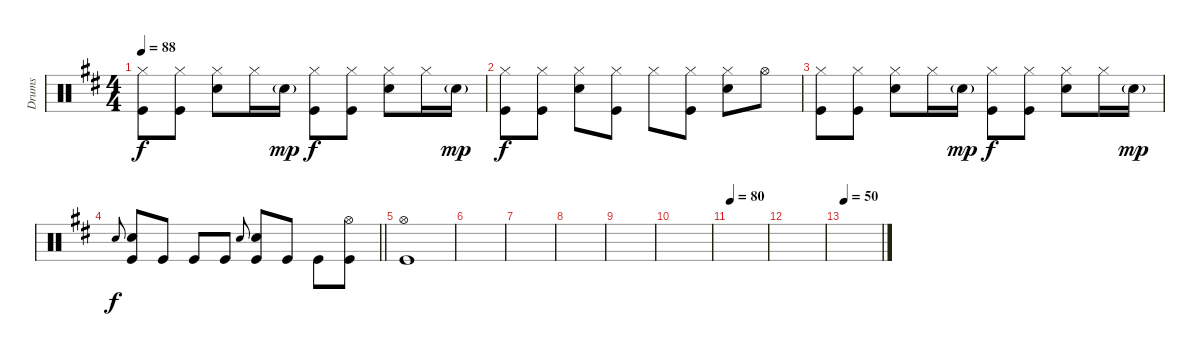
\track ("Drums" "Drums") {instrument percussion}
\staff {score}
\articulation defaults
\ts (4 4)
\tempo 88
\clef neutral
\ks bminor
("Kick (hit)" "Hi-Hat (closed)").8{dy f} ("Kick (hit)" "Hi-Hat (closed)").8 ("Snare (hit) 2" "Hi-Hat (closed)").8 "Hi-Hat (closed)".16 "Snare (hit) 2"{g}.16{dy mp} ("Kick (hit)" "Hi-Hat (closed)").8{dy f} ("Kick (hit)" "Hi-Hat (closed)").8 ("Snare (hit) 2" "Hi-Hat (closed)").8 "Hi-Hat (closed)".16 "Snare (hit) 2"{g}.16{dy mp} |
("Kick (hit)" "Hi-Hat (closed)").8{dy f} ("Kick (hit)" "Hi-Hat (closed)").8 ("Snare (hit) 2" "Hi-Hat (closed)").8 ("Kick (hit)" "Hi-Hat (closed)").8 "Hi-Hat (closed)".8 ("Kick (hit)" "Hi-Hat (closed)").8 ("Snare (hit) 2" "Hi-Hat (closed)").8 "Hi-Hat (open)".8 |
("Kick (hit)" "Hi-Hat (closed)").8 ("Kick (hit)" "Hi-Hat (closed)").8 ("Snare (hit) 2" "Hi-Hat (closed)").8 "Hi-Hat (closed)".16 "Snare (hit) 2"{g}.16{dy mp} ("Kick (hit)" "Hi-Hat (closed)").8{dy f} ("Kick (hit)" "Hi-Hat (closed)").8 ("Snare (hit) 2" "Hi-Hat (closed)").8 "Hi-Hat (closed)".16 "Snare (hit) 2"{g}.16{dy mp} |
\barLineRight lightlight "Snare (hit) 2".8{gr onbeat dy f}
("Snare (hit) 2" "Kick (hit)").8 "Kick (hit)".8 "Kick (hit)".8 "Kick (hit)".8 "Snare (hit) 2".8{gr onbeat} ("Snare (hit) 2" "Kick (hit)").8 "Kick (hit)".8 "Kick (hit)".8 ("Hi-Hat (open)" "Kick (hit)").8 |
("Hi-Hat (open)" "Kick (hit)").1 |
|
|
|
|
|
\tempo 80
|
|
\tempo 50
